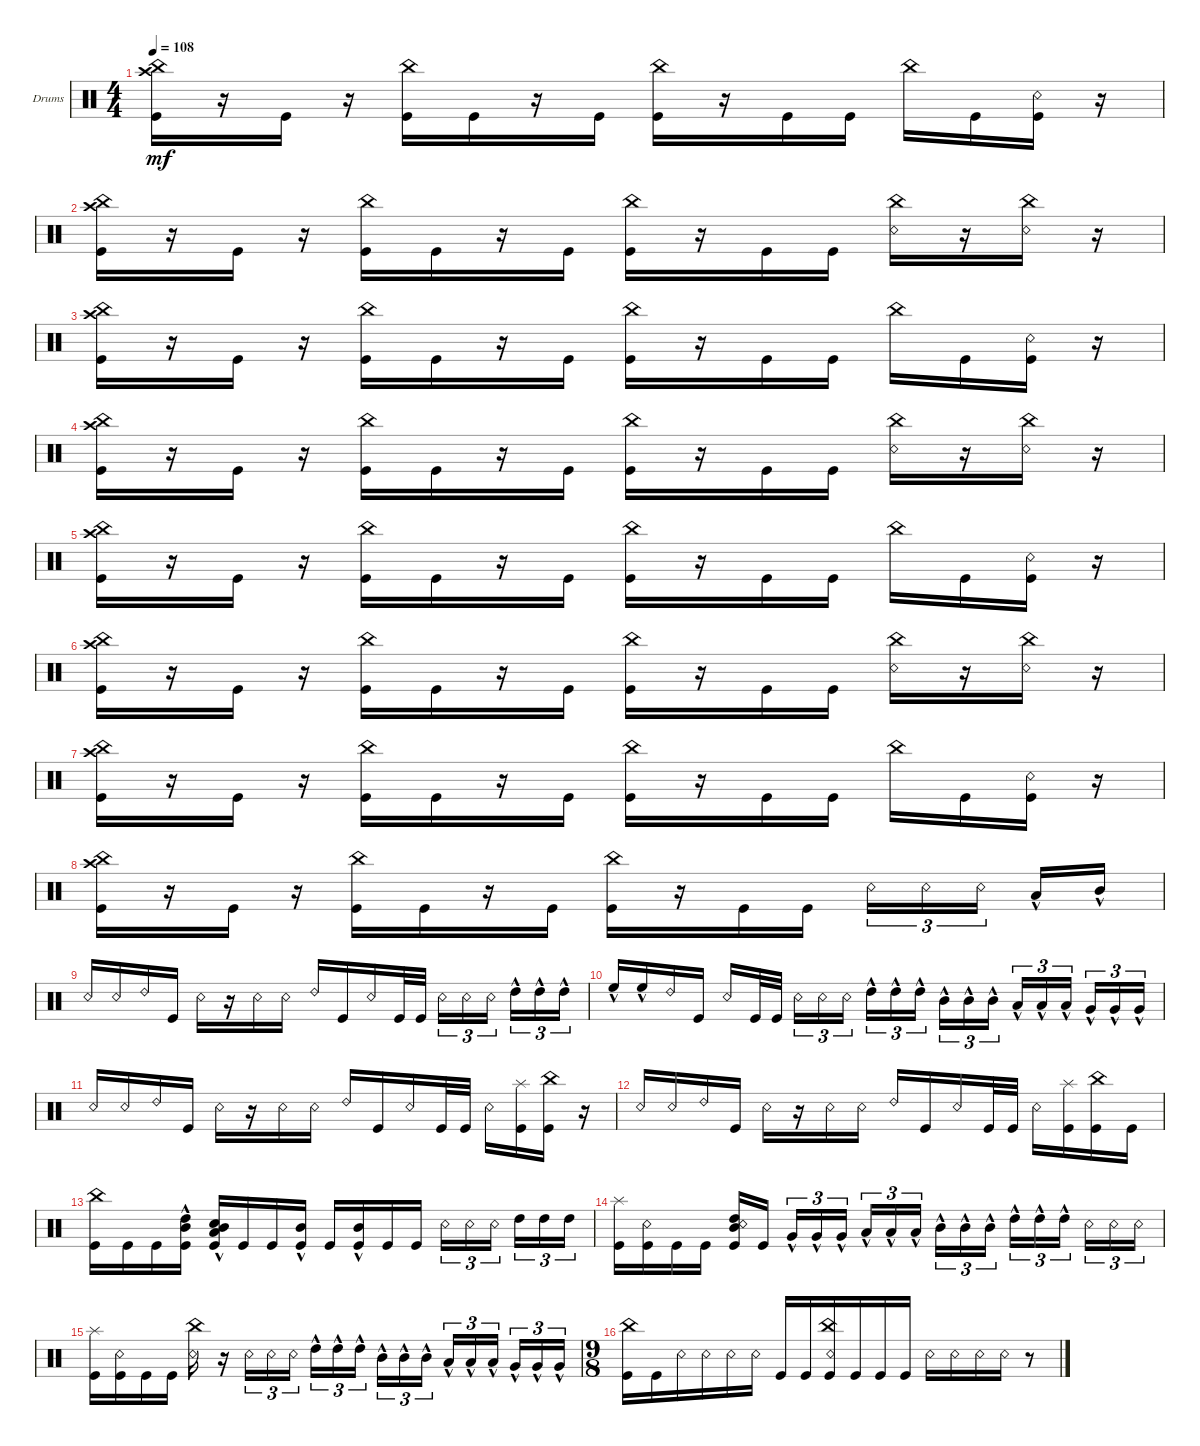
\defaultSystemsLayout 4
\bracketExtendMode groupsimilarinstruments
\firstSystemTrackNameOrientation horizontal
\otherSystemsTrackNameOrientation horizontal
\track ("Drumkit" "Drums") {instrument percussion}
\staff {score}
\articulation defaults
\ts (4 4)
\tempo 108
\clef neutral
\ks c
("Kick (hit)" "China (hit)" "Crash high (hit)").16{dy mf} r.16 "Kick (hit)".16 r.16 ("Kick (hit)" "China (hit)").16 "Kick (hit)".16 r.16 "Kick (hit)".16 ("Kick (hit)" "China (hit)").16 r.16 "Kick (hit)".16 "Kick (hit)".16 "China (hit)".16 "Kick (hit)".16 ("Snare (rim shot)" "Kick (hit)").16 r.16 |
("Kick (hit)" "China (hit)" "Crash high (hit)").16 r.16 "Kick (hit)".16 r.16 ("Kick (hit)" "China (hit)").16 "Kick (hit)".16 r.16 "Kick (hit)".16 ("Kick (hit)" "China (hit)").16 r.16 "Kick (hit)".16 "Kick (hit)".16 ("China (hit)" "Snare (rim shot)").16 r.16 ("Snare (rim shot)" "China (hit)").16 r.16 |
("Kick (hit)" "China (hit)" "Crash high (hit)").16 r.16 "Kick (hit)".16 r.16 ("Kick (hit)" "China (hit)").16 "Kick (hit)".16 r.16 "Kick (hit)".16 ("Kick (hit)" "China (hit)").16 r.16 "Kick (hit)".16 "Kick (hit)".16 "China (hit)".16 "Kick (hit)".16 ("Snare (rim shot)" "Kick (hit)").16 r.16 |
("Kick (hit)" "China (hit)" "Crash high (hit)").16 r.16 "Kick (hit)".16 r.16 ("Kick (hit)" "China (hit)").16 "Kick (hit)".16 r.16 "Kick (hit)".16 ("Kick (hit)" "China (hit)").16 r.16 "Kick (hit)".16 "Kick (hit)".16 ("China (hit)" "Snare (rim shot)").16 r.16 ("Snare (rim shot)" "China (hit)").16 r.16 |
("Kick (hit)" "China (hit)" "Crash high (hit)").16 r.16 "Kick (hit)".16 r.16 ("Kick (hit)" "China (hit)").16 "Kick (hit)".16 r.16 "Kick (hit)".16 ("Kick (hit)" "China (hit)").16 r.16 "Kick (hit)".16 "Kick (hit)".16 "China (hit)".16 "Kick (hit)".16 ("Snare (rim shot)" "Kick (hit)").16 r.16 |
("Kick (hit)" "China (hit)" "Crash high (hit)").16 r.16 "Kick (hit)".16 r.16 ("Kick (hit)" "China (hit)").16 "Kick (hit)".16 r.16 "Kick (hit)".16 ("Kick (hit)" "China (hit)").16 r.16 "Kick (hit)".16 "Kick (hit)".16 ("China (hit)" "Snare (rim shot)").16 r.16 ("Snare (rim shot)" "China (hit)").16 r.16 |
("Kick (hit)" "China (hit)" "Crash high (hit)").16 r.16 "Kick (hit)".16 r.16 ("Kick (hit)" "China (hit)").16 "Kick (hit)".16 r.16 "Kick (hit)".16 ("Kick (hit)" "China (hit)").16 r.16 "Kick (hit)".16 "Kick (hit)".16 "China (hit)".16 "Kick (hit)".16 ("Snare (rim shot)" "Kick (hit)").16 r.16 |
("Kick (hit)" "China (hit)" "Crash high (hit)").16 r.16 "Kick (hit)".16 r.16 ("Kick (hit)" "China (hit)").16 "Kick (hit)".16 r.16 "Kick (hit)".16 ("Kick (hit)" "China (hit)").16 r.16 "Kick (hit)".16 "Kick (hit)".16 "Snare (rim shot)".16{tu (3 2)} "Snare (rim shot)".16{tu (3 2)} "Snare (rim shot)".16{tu (3 2)} "Low Tom (hit)"{hac}.16 "Mid Tom (hit)"{hac}.16 |
"Snare (rim shot)".16 "Snare (rim shot)".16 "Ride (bell) 2".16 "Kick (hit)".16 "Snare (rim shot)".16 r.16 "Snare (rim shot)".16 "Snare (rim shot)".16 "Ride (bell) 2".16 "Kick (hit)".16 "Snare (rim shot)".16 "Kick (hit)".32 "Kick (hit)".32 "Snare (rim shot)".16{tu (3 2)} "Snare (rim shot)".16{tu (3 2)} "Snare (rim shot)".16{tu (3 2)} "High Tom (hit)"{hac}.16{tu (3 2)} "High Tom (hit)"{hac}.16{tu (3 2)} "High Tom (hit)"{hac}.16{tu (3 2)} |
"High Floor Tom (hit)"{hac}.16 "High Floor Tom (hit)"{hac}.16 "Ride (bell) 2".16 "Kick (hit)".16 "Snare (rim shot)".16 "Kick (hit)".32 "Kick (hit)".32 "Snare (rim shot)".16{tu (3 2)} "Snare (rim shot)".16{tu (3 2)} "Snare (rim shot)".16{tu (3 2)} "High Tom (hit)"{hac}.16{tu (3 2)} "High Tom (hit)"{hac}.16{tu (3 2)} "High Tom (hit)"{hac}.16{tu (3 2)} "Mid Tom (hit)"{hac}.16{tu (3 2)} "Mid Tom (hit)"{hac}.16{tu (3 2)} "Mid Tom (hit)"{hac}.16{tu (3 2)} "Low Tom (hit)"{hac}.16{tu (3 2)} "Low Tom (hit)"{hac}.16{tu (3 2)} "Low Tom (hit)"{hac}.16{tu (3 2)} "Very Low Tom (hit)"{hac}.16{tu (3 2)} "Very Low Tom (hit)"{hac}.16{tu (3 2)} "Very Low Tom (hit)"{hac}.16{tu (3 2)} |
"Snare (rim shot)".16 "Snare (rim shot)".16 "Ride (bell) 2".16 "Kick (hit)".16 "Snare (rim shot)".16 r.16 "Snare (rim shot)".16 "Snare (rim shot)".16 "Ride (bell) 2".16 "Kick (hit)".16 "Snare (rim shot)".16 "Kick (hit)".32 "Kick (hit)".32 "Snare (rim shot)".16 ("Splash (hit)" "Kick (hit)").16 ("China (hit)" "Kick (hit)").16 r.16 |
"Snare (rim shot)".16 "Snare (rim shot)".16 "Ride (bell) 2".16 "Kick (hit)".16 "Snare (rim shot)".16 r.16 "Snare (rim shot)".16 "Snare (rim shot)".16 "Ride (bell) 2".16 "Kick (hit)".16 "Snare (rim shot)".16 "Kick (hit)".32 "Kick (hit)".32 "Snare (rim shot)".16 ("Splash (hit)" "Kick (hit)").16 ("China (hit)" "Kick (hit)").16 "Kick (hit)".16 |
("Kick (hit)" "China (hit)").16 "Kick (hit)".16 "Kick (hit)".16 ("Kick (hit)" "High Tom (hit)"{hac} "Mid Tom (hit)"{hac}).16 ("Kick (hit)" "Mid Tom (hit)"{hac} "Snare (hit) 2"{hac} "Low Tom (hit)"{hac}).16 "Kick (hit)".16 "Kick (hit)".16 ("Kick (hit)" "Mid Tom (hit)"{hac}).16 "Kick (hit)".16 ("Kick (hit)" "Mid Tom (hit)"{hac}).16 "Kick (hit)".16 "Kick (hit)".16 "Snare (rim shot)".16{tu (3 2)} "Snare (rim shot)".16{tu (3 2)} "Snare (rim shot)".16{tu (3 2)} "High Tom (hit)".16{tu (3 2)} "High Tom (hit)".16{tu (3 2)} "High Tom (hit)".16{tu (3 2)} |
("Kick (hit)" "Splash (hit)").16 ("Kick (hit)" "Snare (rim shot)").16 "Kick (hit)".16 "Kick (hit)".16 ("Kick (hit)" "High Tom (hit)" "Mid Tom (hit)" "Snare (rim shot)").16 "Kick (hit)".16 "Very Low Tom (hit)"{hac}.16{tu (3 2)} "Very Low Tom (hit)"{hac}.16{tu (3 2)} "Very Low Tom (hit)"{hac}.16{tu (3 2)} "Low Tom (hit)"{hac}.16{tu (3 2)} "Low Tom (hit)"{hac}.16{tu (3 2)} "Low Tom (hit)"{hac}.16{tu (3 2)} "Mid Tom (hit)"{hac}.16{tu (3 2)} "Mid Tom (hit)"{hac}.16{tu (3 2)} "Mid Tom (hit)"{hac}.16{tu (3 2)} "High Tom (hit)"{hac}.16{tu (3 2)} "High Tom (hit)"{hac}.16{tu (3 2)} "High Tom (hit)"{hac}.16{tu (3 2)} "Snare (rim shot)".16{tu (3 2)} "Snare (rim shot)".16{tu (3 2)} "Snare (rim shot)".16{tu (3 2)} |
("Splash (hit)" "Kick (hit)").16 ("Kick (hit)" "Snare (rim shot)").16 "Kick (hit)".16 "Kick (hit)".16 ("Snare (rim shot)" "China (hit)").16 r.16 "Snare (rim shot)".16{tu (3 2)} "Snare (rim shot)".16{tu (3 2)} "Snare (rim shot)".16{tu (3 2)} "High Tom (hit)"{hac}.16{tu (3 2)} "High Tom (hit)"{hac}.16{tu (3 2)} "High Tom (hit)"{hac}.16{tu (3 2)} "Mid Tom (hit)"{hac}.16{tu (3 2)} "Mid Tom (hit)"{hac}.16{tu (3 2)} "Mid Tom (hit)"{hac}.16{tu (3 2)} "Low Tom (hit)"{hac}.16{tu (3 2)} "Low Tom (hit)"{hac}.16{tu (3 2)} "Low Tom (hit)"{hac}.16{tu (3 2)} "Very Low Tom (hit)"{hac}.16{tu (3 2)} "Very Low Tom (hit)"{hac}.16{tu (3 2)} "Very Low Tom (hit)"{hac}.16{tu (3 2)} |
\ts (9 8)
("Kick (hit)" "China (hit)").16 "Kick (hit)".16 "Snare (rim shot)".16 "Snare (rim shot)".16 "Snare (rim shot)".16 "Snare (rim shot)".16 "Kick (hit)".16 "Kick (hit)".16 ("Kick (hit)" "Snare (rim shot)" "China (hit)").16 "Kick (hit)".16 "Kick (hit)".16 "Kick (hit)".16 "Snare (rim shot)".16 "Snare (rim shot)".16 "Snare (rim shot)".16 "Snare (rim shot)".16 r.8
